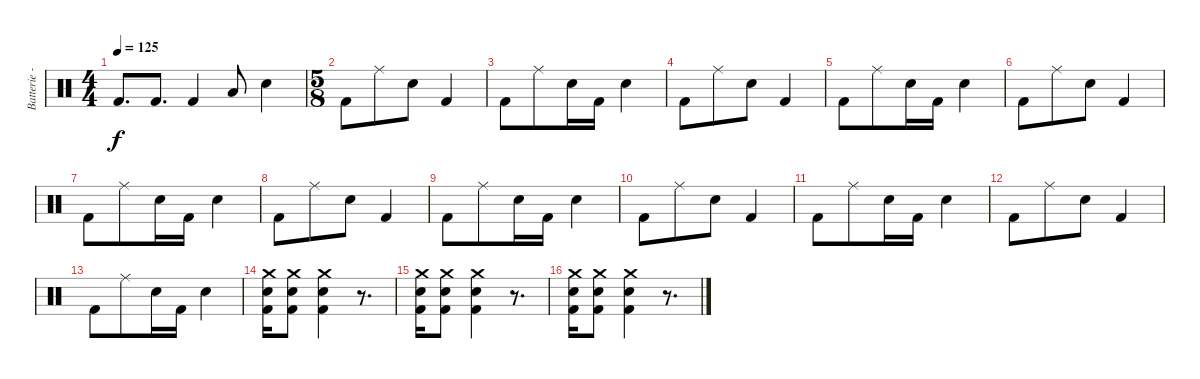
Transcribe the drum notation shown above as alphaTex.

\track ("Batterie - Shane Gaalaas" "Batterie -") {instrument percussion}
\staff {score}
\articulation defaults
\ts (4 4)
\tempo 125
\clef neutral
\ks c "Kick (hit) 2".8{d dy f} "Kick (hit) 2".8{d} "Kick (hit) 2".4 "Low Tom (hit)".8 "Electric Snare (hit)".4
|
\ts (5 8)
"Kick (hit) 2".8 "Ride (middle)".8 "Electric Snare (hit)".8 "Kick (hit) 2".4 |
"Kick (hit) 2".8 "Ride (middle)".8 "Electric Snare (hit)".16 "Kick (hit) 2".16 "Electric Snare (hit)".4 |
"Kick (hit) 2".8 "Ride (middle)".8 "Electric Snare (hit)".8 "Kick (hit) 2".4 |
"Kick (hit) 2".8 "Ride (middle)".8 "Electric Snare (hit)".16 "Kick (hit) 2".16 "Electric Snare (hit)".4 |
"Kick (hit) 2".8 "Ride (middle)".8 "Electric Snare (hit)".8 "Kick (hit) 2".4 |
"Kick (hit) 2".8 "Ride (middle)".8 "Electric Snare (hit)".16 "Kick (hit) 2".16 "Electric Snare (hit)".4 |
"Kick (hit) 2".8 "Ride (middle)".8 "Electric Snare (hit)".8 "Kick (hit) 2".4 |
"Kick (hit) 2".8 "Ride (middle)".8 "Electric Snare (hit)".16 "Kick (hit) 2".16 "Electric Snare (hit)".4 |
"Kick (hit) 2".8 "Ride (middle)".8 "Electric Snare (hit)".8 "Kick (hit) 2".4 |
"Kick (hit) 2".8 "Ride (middle)".8 "Electric Snare (hit)".16 "Kick (hit) 2".16 "Electric Snare (hit)".4 |
"Kick (hit) 2".8 "Ride (middle)".8 "Electric Snare (hit)".8 "Kick (hit) 2".4 |
"Kick (hit) 2".8 "Ride (middle)".8 "Electric Snare (hit)".16 "Kick (hit) 2".16 "Electric Snare (hit)".4 |
("Crash medium (hit)" "Electric Snare (hit)" "Kick (hit) 2").16 ("Crash medium (hit)" "Electric Snare (hit)" "Kick (hit) 2").8 ("Crash medium (hit)" "Electric Snare (hit)" "Kick (hit) 2").4 r.8{d} |
("Crash medium (hit)" "Electric Snare (hit)" "Kick (hit) 2").16 ("Crash medium (hit)" "Electric Snare (hit)" "Kick (hit) 2").8 ("Crash medium (hit)" "Electric Snare (hit)" "Kick (hit) 2").4 r.8{d} |
("Crash medium (hit)" "Electric Snare (hit)" "Kick (hit) 2").16 ("Crash medium (hit)" "Electric Snare (hit)" "Kick (hit) 2").8 ("Crash medium (hit)" "Electric Snare (hit)" "Kick (hit) 2").4 r.8{d}
